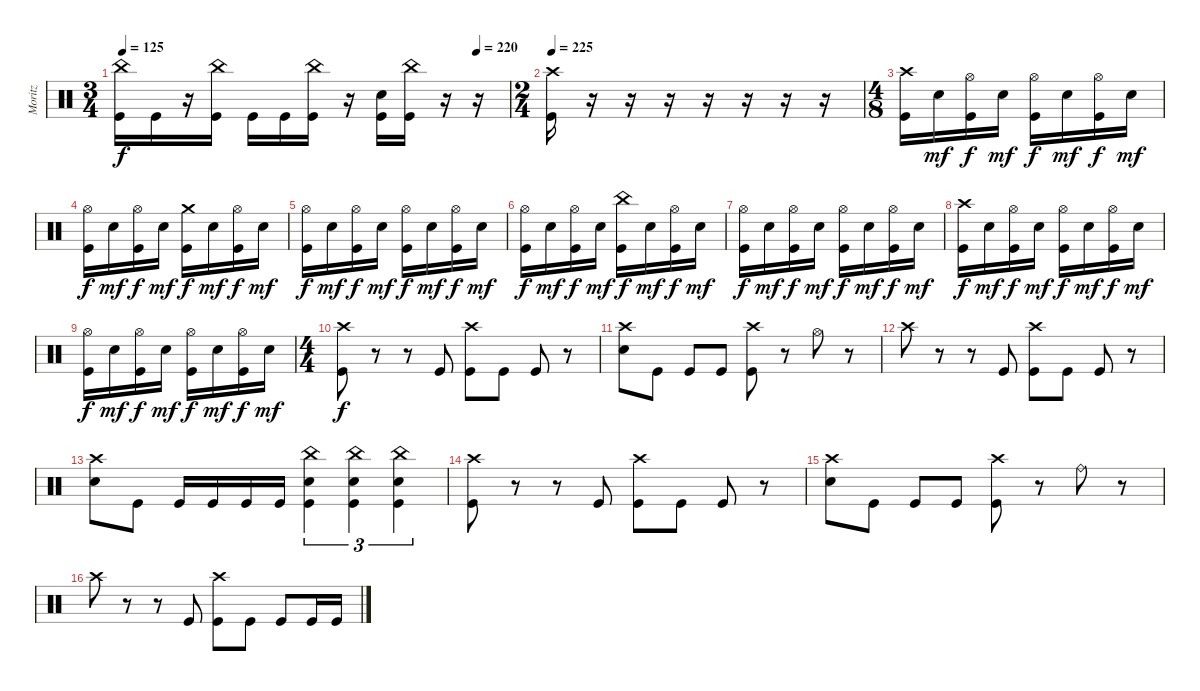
\track ("Moritz" "Moritz") {instrument percussion}
\staff {score}
\articulation defaults
\ts (3 4)
\tempo 125
\tempo (220 0.9166666666666666)
\clef neutral
\ks c
("China (hit)" "Kick (hit)").16{dy f} "Kick (hit)".16 r.16 ("China (hit)" "Kick (hit)").16 "Kick (hit)".16 "Kick (hit)".16 ("China (hit)" "Kick (hit)").16 r.16 ("Snare (hit) 2" "Kick (hit)").16 ("China (hit)" "Kick (hit)").16 r.16 r.16 |
\ts (2 4)
\tempo 225
("Crash high (hit)" "Kick (hit)").16 r.16 r.16 r.16 r.16 r.16 r.16 r.16 |
\ts (4 8)
("Crash high (hit)" "Kick (hit)").16 "Snare (hit) 2".16{dy mf} ("Hi-Hat (open)" "Kick (hit)").16{dy f} "Snare (hit) 2".16{dy mf} ("Hi-Hat (open)" "Kick (hit)").16{dy f} "Snare (hit) 2".16{dy mf} ("Hi-Hat (open)" "Kick (hit)").16{dy f} "Snare (hit) 2".16{dy mf} |
("Hi-Hat (open)" "Kick (hit)").16{dy f} "Snare (hit) 2".16{dy mf} ("Hi-Hat (open)" "Kick (hit)").16{dy f} "Snare (hit) 2".16{dy mf} ("Crash medium (hit)" "Kick (hit)").16{dy f} "Snare (hit) 2".16{dy mf} ("Hi-Hat (open)" "Kick (hit)").16{dy f} "Snare (hit) 2".16{dy mf} |
("Hi-Hat (open)" "Kick (hit)").16{dy f} "Snare (hit) 2".16{dy mf} ("Hi-Hat (open)" "Kick (hit)").16{dy f} "Snare (hit) 2".16{dy mf} ("Hi-Hat (open)" "Kick (hit)").16{dy f} "Snare (hit) 2".16{dy mf} ("Hi-Hat (open)" "Kick (hit)").16{dy f} "Snare (hit) 2".16{dy mf} |
("Hi-Hat (open)" "Kick (hit)").16{dy f} "Snare (hit) 2".16{dy mf} ("Hi-Hat (open)" "Kick (hit)").16{dy f} "Snare (hit) 2".16{dy mf} ("China (hit)" "Kick (hit)").16{dy f} "Snare (hit) 2".16{dy mf} ("Hi-Hat (open)" "Kick (hit)").16{dy f} "Snare (hit) 2".16{dy mf} |
("Hi-Hat (open)" "Kick (hit)").16{dy f} "Snare (hit) 2".16{dy mf} ("Hi-Hat (open)" "Kick (hit)").16{dy f} "Snare (hit) 2".16{dy mf} ("Hi-Hat (open)" "Kick (hit)").16{dy f} "Snare (hit) 2".16{dy mf} ("Hi-Hat (open)" "Kick (hit)").16{dy f} "Snare (hit) 2".16{dy mf} |
("Crash high (hit)" "Kick (hit)").16{dy f} "Snare (hit) 2".16{dy mf} ("Hi-Hat (open)" "Kick (hit)").16{dy f} "Snare (hit) 2".16{dy mf} ("Hi-Hat (open)" "Kick (hit)").16{dy f} "Snare (hit) 2".16{dy mf} ("Hi-Hat (open)" "Kick (hit)").16{dy f} "Snare (hit) 2".16{dy mf} |
("Hi-Hat (open)" "Kick (hit)").16{dy f} "Snare (hit) 2".16{dy mf} ("Hi-Hat (open)" "Kick (hit)").16{dy f} "Snare (hit) 2".16{dy mf} ("Hi-Hat (open)" "Kick (hit)").16{dy f} "Snare (hit) 2".16{dy mf} ("Hi-Hat (open)" "Kick (hit)").16{dy f} "Snare (hit) 2".16{dy mf} |
\ts (4 4)
("Crash high (hit)" "Kick (hit)").8{dy f} r.8 r.8 "Kick (hit)".8 ("Crash high (hit)" "Kick (hit)").8 "Kick (hit)".8 "Kick (hit)".8 r.8 |
("Crash high (hit)" "Snare (hit) 2").8 "Kick (hit)".8 "Kick (hit)".8 "Kick (hit)".8 ("Crash high (hit)" "Kick (hit)").8 r.8 "Hi-Hat (open)".8 r.8 |
"Crash high (hit)".8 r.8 r.8 "Kick (hit)".8 ("Crash high (hit)" "Kick (hit)").8 "Kick (hit)".8 "Kick (hit)".8 r.8 |
("Crash high (hit)" "Snare (hit) 2").8 "Kick (hit)".8 "Kick (hit)".16 "Kick (hit)".16 "Kick (hit)".16 "Kick (hit)".16 ("China (hit)" "Snare (hit) 2" "Kick (hit)").4{tu (3 2)} ("China (hit)" "Snare (hit) 2" "Kick (hit)").4{tu (3 2)} ("China (hit)" "Snare (hit) 2" "Kick (hit)").4{tu (3 2)} |
("Crash high (hit)" "Kick (hit)").8 r.8 r.8 "Kick (hit)".8 ("Crash high (hit)" "Kick (hit)").8 "Kick (hit)".8 "Kick (hit)".8 r.8 |
("Crash high (hit)" "Snare (hit) 2").8 "Kick (hit)".8 "Kick (hit)".8 "Kick (hit)".8 ("Crash high (hit)" "Kick (hit)").8 r.8 "Ride (bell)".8 r.8 |
"Crash high (hit)".8 r.8 r.8 "Kick (hit)".8 ("Crash high (hit)" "Kick (hit)").8 "Kick (hit)".8 "Kick (hit)".8 "Kick (hit)".16 "Kick (hit)".16
